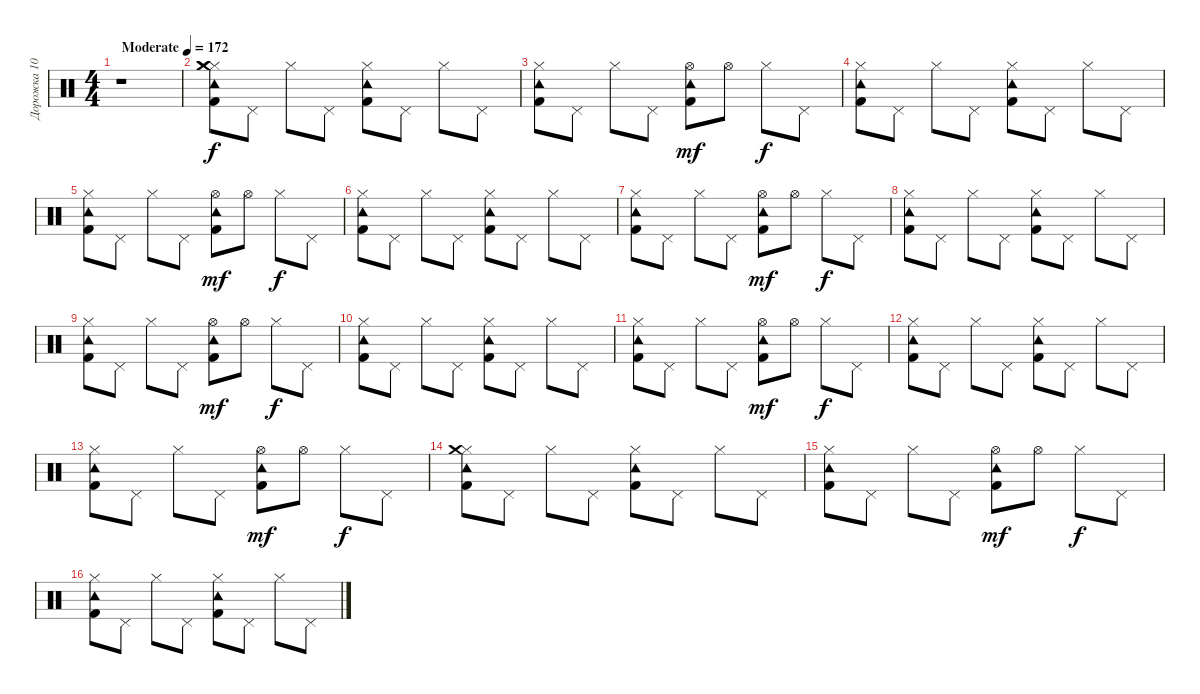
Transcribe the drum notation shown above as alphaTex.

\track ("Дорожка 10" "Дорожка 10") {instrument percussion}
\staff {score}
\articulation defaults
\ts (4 4)
\tempo (172 "Moderate")
\clef neutral
\ks c
r.1{dy f} |
("Hi-Hat (closed)" "Tambourine (hit)" "Kick (hit) 2" "Crash medium (hit)" "Crash medium (hit)").8 "Pedal Hi-Hat (hit)".8 "Hi-Hat (closed)".8 "Pedal Hi-Hat (hit)".8 ("Hi-Hat (closed)" "Kick (hit) 2" "Tambourine (hit)").8 "Pedal Hi-Hat (hit)".8 "Hi-Hat (closed)".8 "Pedal Hi-Hat (hit)".8 |
("Tambourine (hit)" "Kick (hit) 2" "Hi-Hat (closed)").8 "Pedal Hi-Hat (hit)".8 "Hi-Hat (closed)".8 "Pedal Hi-Hat (hit)".8 ("Hi-Hat (open)" "Kick (hit) 2" "Tambourine (hit)").8{dy mf} "Hi-Hat (open)".8 "Hi-Hat (closed)".8{dy f} "Pedal Hi-Hat (hit)".8 |
("Hi-Hat (closed)" "Kick (hit) 2" "Tambourine (hit)").8 "Pedal Hi-Hat (hit)".8 "Hi-Hat (closed)".8 "Pedal Hi-Hat (hit)".8 ("Tambourine (hit)" "Kick (hit) 2" "Hi-Hat (closed)").8 "Pedal Hi-Hat (hit)".8 "Hi-Hat (closed)".8 "Pedal Hi-Hat (hit)".8 |
("Hi-Hat (closed)" "Kick (hit) 2" "Tambourine (hit)").8 "Pedal Hi-Hat (hit)".8 "Hi-Hat (closed)".8 "Pedal Hi-Hat (hit)".8 ("Kick (hit) 2" "Hi-Hat (open)" "Tambourine (hit)").8{dy mf} "Hi-Hat (open)".8 "Hi-Hat (closed)".8{dy f} "Pedal Hi-Hat (hit)".8 |
("Hi-Hat (closed)" "Kick (hit) 2" "Tambourine (hit)").8 "Pedal Hi-Hat (hit)".8 "Hi-Hat (closed)".8 "Pedal Hi-Hat (hit)".8 ("Hi-Hat (closed)" "Kick (hit) 2" "Tambourine (hit)").8 "Pedal Hi-Hat (hit)".8 "Hi-Hat (closed)".8 "Pedal Hi-Hat (hit)".8 |
("Tambourine (hit)" "Kick (hit) 2" "Hi-Hat (closed)").8 "Pedal Hi-Hat (hit)".8 "Hi-Hat (closed)".8 "Pedal Hi-Hat (hit)".8 ("Hi-Hat (open)" "Kick (hit) 2" "Tambourine (hit)").8{dy mf} "Hi-Hat (open)".8 "Hi-Hat (closed)".8{dy f} "Pedal Hi-Hat (hit)".8 |
("Kick (hit) 2" "Hi-Hat (closed)" "Tambourine (hit)").8 "Pedal Hi-Hat (hit)".8 "Hi-Hat (closed)".8 "Pedal Hi-Hat (hit)".8 ("Hi-Hat (closed)" "Kick (hit) 2" "Tambourine (hit)").8 "Pedal Hi-Hat (hit)".8 "Hi-Hat (closed)".8 "Pedal Hi-Hat (hit)".8 |
("Hi-Hat (closed)" "Kick (hit) 2" "Tambourine (hit)").8 "Pedal Hi-Hat (hit)".8 "Hi-Hat (closed)".8 "Pedal Hi-Hat (hit)".8 ("Tambourine (hit)" "Hi-Hat (open)" "Kick (hit) 2").8{dy mf} "Hi-Hat (open)".8 "Hi-Hat (closed)".8{dy f} "Pedal Hi-Hat (hit)".8 |
("Tambourine (hit)" "Kick (hit) 2" "Hi-Hat (closed)").8 "Pedal Hi-Hat (hit)".8 "Hi-Hat (closed)".8 "Pedal Hi-Hat (hit)".8 ("Kick (hit) 2" "Hi-Hat (closed)" "Tambourine (hit)").8 "Pedal Hi-Hat (hit)".8 "Hi-Hat (closed)".8 "Pedal Hi-Hat (hit)".8 |
("Hi-Hat (closed)" "Kick (hit) 2" "Tambourine (hit)").8 "Pedal Hi-Hat (hit)".8 "Hi-Hat (closed)".8 "Pedal Hi-Hat (hit)".8 ("Hi-Hat (open)" "Kick (hit) 2" "Tambourine (hit)").8{dy mf} "Hi-Hat (open)".8 "Hi-Hat (closed)".8{dy f} "Pedal Hi-Hat (hit)".8 |
("Tambourine (hit)" "Hi-Hat (closed)" "Kick (hit) 2").8 "Pedal Hi-Hat (hit)".8 "Hi-Hat (closed)".8 "Pedal Hi-Hat (hit)".8 ("Tambourine (hit)" "Kick (hit) 2" "Hi-Hat (closed)").8 "Pedal Hi-Hat (hit)".8 "Hi-Hat (closed)".8 "Pedal Hi-Hat (hit)".8 |
("Kick (hit) 2" "Hi-Hat (closed)" "Tambourine (hit)").8 "Pedal Hi-Hat (hit)".8 "Hi-Hat (closed)".8 "Pedal Hi-Hat (hit)".8 ("Hi-Hat (open)" "Kick (hit) 2" "Tambourine (hit)").8{dy mf} "Hi-Hat (open)".8 "Hi-Hat (closed)".8{dy f} "Pedal Hi-Hat (hit)".8 |
("Kick (hit) 2" "Hi-Hat (closed)" "Crash medium (hit)" "Tambourine (hit)").8 "Pedal Hi-Hat (hit)".8 "Hi-Hat (closed)".8 "Pedal Hi-Hat (hit)".8 ("Kick (hit) 2" "Hi-Hat (closed)" "Tambourine (hit)").8 "Pedal Hi-Hat (hit)".8 "Hi-Hat (closed)".8 "Pedal Hi-Hat (hit)".8 |
("Tambourine (hit)" "Kick (hit) 2" "Hi-Hat (closed)").8 "Pedal Hi-Hat (hit)".8 "Hi-Hat (closed)".8 "Pedal Hi-Hat (hit)".8 ("Hi-Hat (open)" "Kick (hit) 2" "Tambourine (hit)").8{dy mf} "Hi-Hat (open)".8 "Hi-Hat (closed)".8{dy f} "Pedal Hi-Hat (hit)".8 |
("Hi-Hat (closed)" "Kick (hit) 2" "Tambourine (hit)").8 "Pedal Hi-Hat (hit)".8 "Hi-Hat (closed)".8 "Pedal Hi-Hat (hit)".8 ("Hi-Hat (closed)" "Kick (hit) 2" "Tambourine (hit)").8 "Pedal Hi-Hat (hit)".8 "Hi-Hat (closed)".8 "Pedal Hi-Hat (hit)".8
